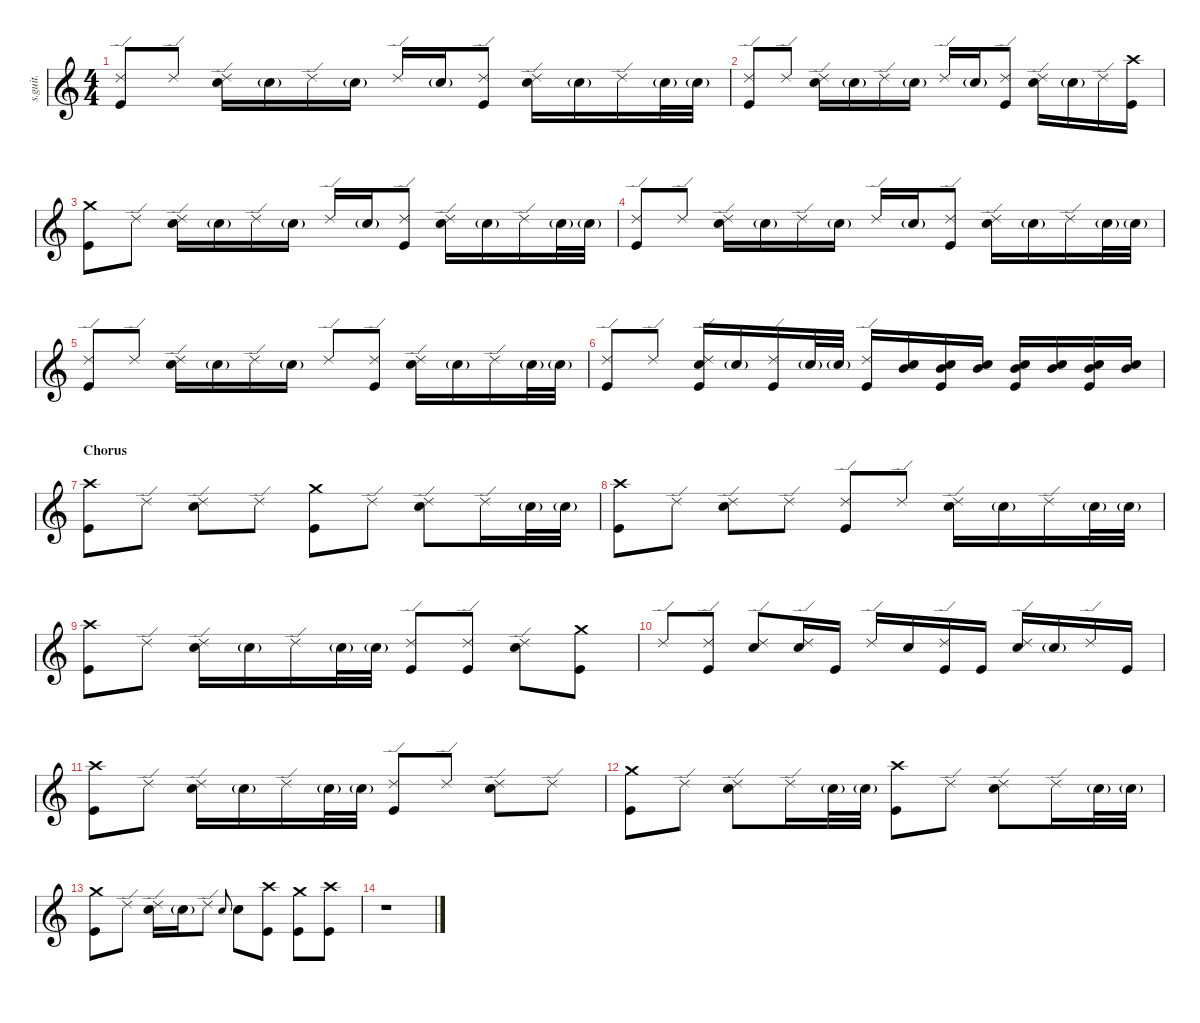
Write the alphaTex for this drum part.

\defaultSystemsLayout 4
\hideDynamics
\bracketExtendMode nobrackets
\track ("C. Smith" "s.guit.") {instrument percussion}
\staff {score}
\articulation defaults
\ts (4 4)
\tempo (96 hide)
\clef g2
\ks c
("Ride (edge) 2" "Kick (hit)").8{lyrics (0 "") lyrics (1 "") lyrics (2 "") lyrics (3 "") lyrics (4 "") dy f} "Ride (edge) 2".8{lyrics (0 "") lyrics (1 "") lyrics (2 "") lyrics (3 "") lyrics (4 "")} ("Ride (edge) 2" "Snare (hit) 2").16{lyrics (0 "") lyrics (1 "") lyrics (2 "") lyrics (3 "") lyrics (4 "")} "Snare (hit) 2"{g}.16{lyrics (0 "") lyrics (1 "") lyrics (2 "") lyrics (3 "") lyrics (4 "") dy ppp} "Ride (edge) 2".16{lyrics (0 "") lyrics (1 "") lyrics (2 "") lyrics (3 "") lyrics (4 "") dy f} "Snare (hit) 2"{g}.16{lyrics (0 "") lyrics (1 "") lyrics (2 "") lyrics (3 "") lyrics (4 "") dy ppp} "Ride (edge) 2".16{lyrics (0 "") lyrics (1 "") lyrics (2 "") lyrics (3 "") lyrics (4 "") dy f} "Snare (hit) 2"{g}.16{lyrics (0 "") lyrics (1 "") lyrics (2 "") lyrics (3 "") lyrics (4 "") dy ppp} ("Ride (edge) 2" "Kick (hit)").8{lyrics (0 "") lyrics (1 "") lyrics (2 "") lyrics (3 "") lyrics (4 "") dy f} ("Ride (edge) 2" "Snare (hit) 2").16{lyrics (0 "") lyrics (1 "") lyrics (2 "") lyrics (3 "") lyrics (4 "")} "Snare (hit) 2"{g}.16{lyrics (0 "") lyrics (1 "") lyrics (2 "") lyrics (3 "") lyrics (4 "") dy ppp} "Ride (edge) 2".16{lyrics (0 "") lyrics (1 "") lyrics (2 "") lyrics (3 "") lyrics (4 "") dy f} "Snare (hit) 2"{g}.32{lyrics (0 "") lyrics (1 "") lyrics (2 "") lyrics (3 "") lyrics (4 "") dy ppp} "Snare (hit) 2"{g}.32{lyrics (0 "") lyrics (1 "") lyrics (2 "") lyrics (3 "") lyrics (4 "")} |
("Ride (edge) 2" "Kick (hit)").8{lyrics (0 "") lyrics (1 "") lyrics (2 "") lyrics (3 "") lyrics (4 "") dy f} "Ride (edge) 2".8{lyrics (0 "") lyrics (1 "") lyrics (2 "") lyrics (3 "") lyrics (4 "")} ("Ride (edge) 2" "Snare (hit) 2").16{lyrics (0 "") lyrics (1 "") lyrics (2 "") lyrics (3 "") lyrics (4 "")} "Snare (hit) 2"{g}.16{lyrics (0 "") lyrics (1 "") lyrics (2 "") lyrics (3 "") lyrics (4 "") dy ppp} "Ride (edge) 2".16{lyrics (0 "") lyrics (1 "") lyrics (2 "") lyrics (3 "") lyrics (4 "") dy f} "Snare (hit) 2"{g}.16{lyrics (0 "") lyrics (1 "") lyrics (2 "") lyrics (3 "") lyrics (4 "") dy ppp} "Ride (edge) 2".16{lyrics (0 "") lyrics (1 "") lyrics (2 "") lyrics (3 "") lyrics (4 "") dy f} "Snare (hit) 2"{g}.16{lyrics (0 "") lyrics (1 "") lyrics (2 "") lyrics (3 "") lyrics (4 "") dy ppp} ("Ride (edge) 2" "Kick (hit)").8{lyrics (0 "") lyrics (1 "") lyrics (2 "") lyrics (3 "") lyrics (4 "") dy f} ("Ride (edge) 2" "Snare (hit) 2").16{lyrics (0 "") lyrics (1 "") lyrics (2 "") lyrics (3 "") lyrics (4 "")} "Snare (hit) 2"{g}.16{lyrics (0 "") lyrics (1 "") lyrics (2 "") lyrics (3 "") lyrics (4 "") dy ppp} "Ride (edge) 2".16{lyrics (0 "") lyrics (1 "") lyrics (2 "") lyrics (3 "") lyrics (4 "") dy f} ("Crash high (hit)" "Kick (hit)").16{lyrics (0 "") lyrics (1 "") lyrics (2 "") lyrics (3 "") lyrics (4 "")} |
("Crash medium (hit)" "Kick (hit)").8{lyrics (0 "") lyrics (1 "") lyrics (2 "") lyrics (3 "") lyrics (4 "")} "Ride (edge) 2".8{lyrics (0 "") lyrics (1 "") lyrics (2 "") lyrics (3 "") lyrics (4 "")} ("Ride (edge) 2" "Snare (hit) 2").16{lyrics (0 "") lyrics (1 "") lyrics (2 "") lyrics (3 "") lyrics (4 "")} "Snare (hit) 2"{g}.16{lyrics (0 "") lyrics (1 "") lyrics (2 "") lyrics (3 "") lyrics (4 "") dy ppp} "Ride (edge) 2".16{lyrics (0 "") lyrics (1 "") lyrics (2 "") lyrics (3 "") lyrics (4 "") dy f} "Snare (hit) 2"{g}.16{lyrics (0 "") lyrics (1 "") lyrics (2 "") lyrics (3 "") lyrics (4 "") dy ppp} "Ride (edge) 2".16{lyrics (0 "") lyrics (1 "") lyrics (2 "") lyrics (3 "") lyrics (4 "") dy f} "Snare (hit) 2"{g}.16{lyrics (0 "") lyrics (1 "") lyrics (2 "") lyrics (3 "") lyrics (4 "") dy ppp} ("Ride (edge) 2" "Kick (hit)").8{lyrics (0 "") lyrics (1 "") lyrics (2 "") lyrics (3 "") lyrics (4 "") dy f} ("Ride (edge) 2" "Snare (hit) 2").16{lyrics (0 "") lyrics (1 "") lyrics (2 "") lyrics (3 "") lyrics (4 "")} "Snare (hit) 2"{g}.16{lyrics (0 "") lyrics (1 "") lyrics (2 "") lyrics (3 "") lyrics (4 "") dy ppp} "Ride (edge) 2".16{lyrics (0 "") lyrics (1 "") lyrics (2 "") lyrics (3 "") lyrics (4 "") dy f} "Snare (hit) 2"{g}.32{lyrics (0 "") lyrics (1 "") lyrics (2 "") lyrics (3 "") lyrics (4 "") dy ppp} "Snare (hit) 2"{g}.32{lyrics (0 "") lyrics (1 "") lyrics (2 "") lyrics (3 "") lyrics (4 "")} |
("Ride (edge) 2" "Kick (hit)").8{lyrics (0 "") lyrics (1 "") lyrics (2 "") lyrics (3 "") lyrics (4 "") dy f} "Ride (edge) 2".8{lyrics (0 "") lyrics (1 "") lyrics (2 "") lyrics (3 "") lyrics (4 "")} ("Ride (edge) 2" "Snare (hit) 2").16{lyrics (0 "") lyrics (1 "") lyrics (2 "") lyrics (3 "") lyrics (4 "")} "Snare (hit) 2"{g}.16{lyrics (0 "") lyrics (1 "") lyrics (2 "") lyrics (3 "") lyrics (4 "") dy ppp} "Ride (edge) 2".16{lyrics (0 "") lyrics (1 "") lyrics (2 "") lyrics (3 "") lyrics (4 "") dy f} "Snare (hit) 2"{g}.16{lyrics (0 "") lyrics (1 "") lyrics (2 "") lyrics (3 "") lyrics (4 "") dy ppp} "Ride (edge) 2".16{lyrics (0 "") lyrics (1 "") lyrics (2 "") lyrics (3 "") lyrics (4 "") dy f} "Snare (hit) 2"{g}.16{lyrics (0 "") lyrics (1 "") lyrics (2 "") lyrics (3 "") lyrics (4 "") dy ppp} ("Ride (edge) 2" "Kick (hit)").8{lyrics (0 "") lyrics (1 "") lyrics (2 "") lyrics (3 "") lyrics (4 "") dy f} ("Ride (edge) 2" "Snare (hit) 2").16{lyrics (0 "") lyrics (1 "") lyrics (2 "") lyrics (3 "") lyrics (4 "")} "Snare (hit) 2"{g}.16{lyrics (0 "") lyrics (1 "") lyrics (2 "") lyrics (3 "") lyrics (4 "") dy ppp} "Ride (edge) 2".16{lyrics (0 "") lyrics (1 "") lyrics (2 "") lyrics (3 "") lyrics (4 "") dy f} "Snare (hit) 2"{g}.32{lyrics (0 "") lyrics (1 "") lyrics (2 "") lyrics (3 "") lyrics (4 "") dy ppp} "Snare (hit) 2"{g}.32{lyrics (0 "") lyrics (1 "") lyrics (2 "") lyrics (3 "") lyrics (4 "")} |
("Ride (edge) 2" "Kick (hit)").8{lyrics (0 "") lyrics (1 "") lyrics (2 "") lyrics (3 "") lyrics (4 "") dy f} "Ride (edge) 2".8{lyrics (0 "") lyrics (1 "") lyrics (2 "") lyrics (3 "") lyrics (4 "")} ("Ride (edge) 2" "Snare (hit) 2").16{lyrics (0 "") lyrics (1 "") lyrics (2 "") lyrics (3 "") lyrics (4 "")} "Snare (hit) 2"{g}.16{lyrics (0 "") lyrics (1 "") lyrics (2 "") lyrics (3 "") lyrics (4 "") dy ppp} "Ride (edge) 2".16{lyrics (0 "") lyrics (1 "") lyrics (2 "") lyrics (3 "") lyrics (4 "") dy f} "Snare (hit) 2"{g}.16{lyrics (0 "") lyrics (1 "") lyrics (2 "") lyrics (3 "") lyrics (4 "") dy ppp} "Ride (edge) 2".8{lyrics (0 "") lyrics (1 "") lyrics (2 "") lyrics (3 "") lyrics (4 "") dy f} ("Ride (edge) 2" "Kick (hit)").8{lyrics (0 "") lyrics (1 "") lyrics (2 "") lyrics (3 "") lyrics (4 "")} ("Ride (edge) 2" "Snare (hit) 2").16{lyrics (0 "") lyrics (1 "") lyrics (2 "") lyrics (3 "") lyrics (4 "")} "Snare (hit) 2"{g}.16{lyrics (0 "") lyrics (1 "") lyrics (2 "") lyrics (3 "") lyrics (4 "") dy ppp} "Ride (edge) 2".16{lyrics (0 "") lyrics (1 "") lyrics (2 "") lyrics (3 "") lyrics (4 "") dy f} "Snare (hit) 2"{g}.32{lyrics (0 "") lyrics (1 "") lyrics (2 "") lyrics (3 "") lyrics (4 "") dy ppp} "Snare (hit) 2"{g}.32{lyrics (0 "") lyrics (1 "") lyrics (2 "") lyrics (3 "") lyrics (4 "")} |
("Ride (edge) 2" "Kick (hit)").8{lyrics (0 "") lyrics (1 "") lyrics (2 "") lyrics (3 "") lyrics (4 "") dy f} "Ride (edge) 2".8{lyrics (0 "") lyrics (1 "") lyrics (2 "") lyrics (3 "") lyrics (4 "")} ("Ride (edge) 2" "Snare (hit) 2" "Kick (hit)").16{lyrics (0 "") lyrics (1 "") lyrics (2 "") lyrics (3 "") lyrics (4 "")} "Snare (hit) 2"{g}.16{lyrics (0 "") lyrics (1 "") lyrics (2 "") lyrics (3 "") lyrics (4 "") dy ppp} ("Ride (edge) 2" "Kick (hit)").16{lyrics (0 "") lyrics (1 "") lyrics (2 "") lyrics (3 "") lyrics (4 "") dy f} "Snare (hit) 2"{g}.32{lyrics (0 "") lyrics (1 "") lyrics (2 "") lyrics (3 "") lyrics (4 "") dy ppp} "Snare (hit) 2"{g}.32{lyrics (0 "") lyrics (1 "") lyrics (2 "") lyrics (3 "") lyrics (4 "")} ("Ride (edge) 2" "Kick (hit)").16{lyrics (0 "") lyrics (1 "") lyrics (2 "") lyrics (3 "") lyrics (4 "") dy f} ("Mid Tom (hit)" "Snare (hit) 2").16{lyrics (0 "") lyrics (1 "") lyrics (2 "") lyrics (3 "") lyrics (4 "") dy pp} ("Mid Tom (hit)" "Snare (hit) 2" "Kick (hit)").16{lyrics (0 "") lyrics (1 "") lyrics (2 "") lyrics (3 "") lyrics (4 "") dy p} ("Mid Tom (hit)" "Snare (hit) 2").16{lyrics (0 "") lyrics (1 "") lyrics (2 "") lyrics (3 "") lyrics (4 "") dy mp} ("Mid Tom (hit)" "Snare (hit) 2" "Kick (hit)").16{lyrics (0 "") lyrics (1 "") lyrics (2 "") lyrics (3 "") lyrics (4 "") dy mf} ("Mid Tom (hit)" "Snare (hit) 2").16{lyrics (0 "") lyrics (1 "") lyrics (2 "") lyrics (3 "") lyrics (4 "") dy f} ("Mid Tom (hit)" "Snare (hit) 2" "Kick (hit)").16{lyrics (0 "") lyrics (1 "") lyrics (2 "") lyrics (3 "") lyrics (4 "") dy ff} ("Mid Tom (hit)" "Snare (hit) 2").16{lyrics (0 "") lyrics (1 "") lyrics (2 "") lyrics (3 "") lyrics (4 "") dy fff} |
\section ("" "Chorus")
("Crash high (hit)" "Kick (hit)").8{lyrics (0 "") lyrics (1 "") lyrics (2 "") lyrics (3 "") lyrics (4 "") dy f} "Ride (edge) 2".8{lyrics (0 "") lyrics (1 "") lyrics (2 "") lyrics (3 "") lyrics (4 "")} ("Ride (edge) 2" "Snare (hit) 2").8{lyrics (0 "") lyrics (1 "") lyrics (2 "") lyrics (3 "") lyrics (4 "")} "Ride (edge) 2".8{lyrics (0 "") lyrics (1 "") lyrics (2 "") lyrics (3 "") lyrics (4 "")} ("Crash medium (hit)" "Kick (hit)").8{lyrics (0 "") lyrics (1 "") lyrics (2 "") lyrics (3 "") lyrics (4 "")} "Ride (edge) 2".8{lyrics (0 "") lyrics (1 "") lyrics (2 "") lyrics (3 "") lyrics (4 "")} ("Ride (edge) 2" "Snare (hit) 2").8{lyrics (0 "") lyrics (1 "") lyrics (2 "") lyrics (3 "") lyrics (4 "")} "Ride (edge) 2".16{lyrics (0 "") lyrics (1 "") lyrics (2 "") lyrics (3 "") lyrics (4 "")} "Snare (hit) 2"{g}.32{lyrics (0 "") lyrics (1 "") lyrics (2 "") lyrics (3 "") lyrics (4 "") dy ppp} "Snare (hit) 2"{g}.32{lyrics (0 "") lyrics (1 "") lyrics (2 "") lyrics (3 "") lyrics (4 "")} |
("Crash high (hit)" "Kick (hit)").8{lyrics (0 "") lyrics (1 "") lyrics (2 "") lyrics (3 "") lyrics (4 "") dy f} "Ride (edge) 2".8{lyrics (0 "") lyrics (1 "") lyrics (2 "") lyrics (3 "") lyrics (4 "")} ("Ride (edge) 2" "Snare (hit) 2").8{lyrics (0 "") lyrics (1 "") lyrics (2 "") lyrics (3 "") lyrics (4 "")} "Ride (edge) 2".8{lyrics (0 "") lyrics (1 "") lyrics (2 "") lyrics (3 "") lyrics (4 "")} ("Ride (edge) 2" "Kick (hit)").8{lyrics (0 "") lyrics (1 "") lyrics (2 "") lyrics (3 "") lyrics (4 "")} "Ride (edge) 2".8{lyrics (0 "") lyrics (1 "") lyrics (2 "") lyrics (3 "") lyrics (4 "")} ("Ride (edge) 2" "Snare (hit) 2").16{lyrics (0 "") lyrics (1 "") lyrics (2 "") lyrics (3 "") lyrics (4 "")} "Snare (hit) 2"{g}.16{lyrics (0 "") lyrics (1 "") lyrics (2 "") lyrics (3 "") lyrics (4 "") dy ppp} "Ride (edge) 2".16{lyrics (0 "") lyrics (1 "") lyrics (2 "") lyrics (3 "") lyrics (4 "") dy f} "Snare (hit) 2"{g}.32{lyrics (0 "") lyrics (1 "") lyrics (2 "") lyrics (3 "") lyrics (4 "") dy ppp} "Snare (hit) 2"{g}.32{lyrics (0 "") lyrics (1 "") lyrics (2 "") lyrics (3 "") lyrics (4 "")} |
("Crash high (hit)" "Kick (hit)").8{lyrics (0 "") lyrics (1 "") lyrics (2 "") lyrics (3 "") lyrics (4 "") dy f} "Ride (edge) 2".8{lyrics (0 "") lyrics (1 "") lyrics (2 "") lyrics (3 "") lyrics (4 "")} ("Ride (edge) 2" "Snare (hit) 2").16{lyrics (0 "") lyrics (1 "") lyrics (2 "") lyrics (3 "") lyrics (4 "")} "Snare (hit) 2"{g}.16{lyrics (0 "") lyrics (1 "") lyrics (2 "") lyrics (3 "") lyrics (4 "") dy ppp} "Ride (edge) 2".16{lyrics (0 "") lyrics (1 "") lyrics (2 "") lyrics (3 "") lyrics (4 "") dy f} "Snare (hit) 2"{g}.32{lyrics (0 "") lyrics (1 "") lyrics (2 "") lyrics (3 "") lyrics (4 "") dy ppp} "Snare (hit) 2"{g}.32{lyrics (0 "") lyrics (1 "") lyrics (2 "") lyrics (3 "") lyrics (4 "")} ("Ride (edge) 2" "Kick (hit)").8{lyrics (0 "") lyrics (1 "") lyrics (2 "") lyrics (3 "") lyrics (4 "") dy f} ("Ride (edge) 2" "Kick (hit)").8{lyrics (0 "") lyrics (1 "") lyrics (2 "") lyrics (3 "") lyrics (4 "")} ("Ride (edge) 2" "Snare (hit) 2").8{lyrics (0 "") lyrics (1 "") lyrics (2 "") lyrics (3 "") lyrics (4 "")} ("Crash medium (hit)" "Kick (hit)").8{lyrics (0 "") lyrics (1 "") lyrics (2 "") lyrics (3 "") lyrics (4 "")} |
"Ride (edge) 2".8{lyrics (0 "") lyrics (1 "") lyrics (2 "") lyrics (3 "") lyrics (4 "")} ("Ride (edge) 2" "Kick (hit)").8{lyrics (0 "") lyrics (1 "") lyrics (2 "") lyrics (3 "") lyrics (4 "")} ("Ride (edge) 2" "Snare (hit) 2").8{lyrics (0 "") lyrics (1 "") lyrics (2 "") lyrics (3 "") lyrics (4 "")} ("Ride (edge) 2" "Snare (hit) 2").16{lyrics (0 "") lyrics (1 "") lyrics (2 "") lyrics (3 "") lyrics (4 "")} "Kick (hit)".16{lyrics (0 "") lyrics (1 "") lyrics (2 "") lyrics (3 "") lyrics (4 "")} "Ride (edge) 2".16{lyrics (0 "") lyrics (1 "") lyrics (2 "") lyrics (3 "") lyrics (4 "")} "Snare (hit) 2".16{lyrics (0 "") lyrics (1 "") lyrics (2 "") lyrics (3 "") lyrics (4 "")} ("Ride (edge) 2" "Kick (hit)").16{lyrics (0 "") lyrics (1 "") lyrics (2 "") lyrics (3 "") lyrics (4 "")} "Kick (hit)".16{lyrics (0 "") lyrics (1 "") lyrics (2 "") lyrics (3 "") lyrics (4 "")} ("Ride (edge) 2" "Snare (hit) 2").16{lyrics (0 "") lyrics (1 "") lyrics (2 "") lyrics (3 "") lyrics (4 "")} "Snare (hit) 2"{g}.16{lyrics (0 "") lyrics (1 "") lyrics (2 "") lyrics (3 "") lyrics (4 "") dy ppp} "Ride (edge) 2".16{lyrics (0 "") lyrics (1 "") lyrics (2 "") lyrics (3 "") lyrics (4 "") dy f} "Kick (hit)".16{lyrics (0 "") lyrics (1 "") lyrics (2 "") lyrics (3 "") lyrics (4 "")} |
("Crash high (hit)" "Kick (hit)").8{lyrics (0 "") lyrics (1 "") lyrics (2 "") lyrics (3 "") lyrics (4 "")} "Ride (edge) 2".8{lyrics (0 "") lyrics (1 "") lyrics (2 "") lyrics (3 "") lyrics (4 "")} ("Ride (edge) 2" "Snare (hit) 2").16{lyrics (0 "") lyrics (1 "") lyrics (2 "") lyrics (3 "") lyrics (4 "")} "Snare (hit) 2"{g}.16{lyrics (0 "") lyrics (1 "") lyrics (2 "") lyrics (3 "") lyrics (4 "") dy ppp} "Ride (edge) 2".16{lyrics (0 "") lyrics (1 "") lyrics (2 "") lyrics (3 "") lyrics (4 "") dy f} "Snare (hit) 2"{g}.32{lyrics (0 "") lyrics (1 "") lyrics (2 "") lyrics (3 "") lyrics (4 "") dy ppp} "Snare (hit) 2"{g}.32{lyrics (0 "") lyrics (1 "") lyrics (2 "") lyrics (3 "") lyrics (4 "")} ("Ride (edge) 2" "Kick (hit)").8{lyrics (0 "") lyrics (1 "") lyrics (2 "") lyrics (3 "") lyrics (4 "") dy f} "Ride (edge) 2".8{lyrics (0 "") lyrics (1 "") lyrics (2 "") lyrics (3 "") lyrics (4 "")} ("Ride (edge) 2" "Snare (hit) 2").8{lyrics (0 "") lyrics (1 "") lyrics (2 "") lyrics (3 "") lyrics (4 "")} "Ride (edge) 2".8{lyrics (0 "") lyrics (1 "") lyrics (2 "") lyrics (3 "") lyrics (4 "")} |
("Crash medium (hit)" "Kick (hit)").8{lyrics (0 "") lyrics (1 "") lyrics (2 "") lyrics (3 "") lyrics (4 "")} "Ride (edge) 2".8{lyrics (0 "") lyrics (1 "") lyrics (2 "") lyrics (3 "") lyrics (4 "")} ("Ride (edge) 2" "Snare (hit) 2").8{lyrics (0 "") lyrics (1 "") lyrics (2 "") lyrics (3 "") lyrics (4 "")} "Ride (edge) 2".16{lyrics (0 "") lyrics (1 "") lyrics (2 "") lyrics (3 "") lyrics (4 "")} "Snare (hit) 2"{g}.32{lyrics (0 "") lyrics (1 "") lyrics (2 "") lyrics (3 "") lyrics (4 "") dy ppp} "Snare (hit) 2"{g}.32{lyrics (0 "") lyrics (1 "") lyrics (2 "") lyrics (3 "") lyrics (4 "")} ("Crash high (hit)" "Kick (hit)").8{lyrics (0 "") lyrics (1 "") lyrics (2 "") lyrics (3 "") lyrics (4 "") dy f} "Ride (edge) 2".8{lyrics (0 "") lyrics (1 "") lyrics (2 "") lyrics (3 "") lyrics (4 "")} ("Ride (edge) 2" "Snare (hit) 2").8{lyrics (0 "") lyrics (1 "") lyrics (2 "") lyrics (3 "") lyrics (4 "")} "Ride (edge) 2".16{lyrics (0 "") lyrics (1 "") lyrics (2 "") lyrics (3 "") lyrics (4 "")} "Snare (hit) 2"{g}.32{lyrics (0 "") lyrics (1 "") lyrics (2 "") lyrics (3 "") lyrics (4 "") dy ppp} "Snare (hit) 2"{g}.32{lyrics (0 "") lyrics (1 "") lyrics (2 "") lyrics (3 "") lyrics (4 "")} |
("Crash medium (hit)" "Kick (hit)").8{lyrics (0 "") lyrics (1 "") lyrics (2 "") lyrics (3 "") lyrics (4 "") dy f} "Ride (edge) 2".8{lyrics (0 "") lyrics (1 "") lyrics (2 "") lyrics (3 "") lyrics (4 "")} ("Ride (edge) 2" "Snare (hit) 2").16{lyrics (0 "") lyrics (1 "") lyrics (2 "") lyrics (3 "") lyrics (4 "")} "Snare (hit) 2"{g}.16{lyrics (0 "") lyrics (1 "") lyrics (2 "") lyrics (3 "") lyrics (4 "") dy ppp} "Ride (edge) 2".8{lyrics (0 "") lyrics (1 "") lyrics (2 "") lyrics (3 "") lyrics (4 "") dy f} "Snare (hit) 2".8{lyrics (0 "") lyrics (1 "") lyrics (2 "") lyrics (3 "") lyrics (4 "") gr onbeat} "Snare (hit) 2".8{lyrics (0 "") lyrics (1 "") lyrics (2 "") lyrics (3 "") lyrics (4 "")} ("Crash high (hit)" "Kick (hit)").8{lyrics (0 "") lyrics (1 "") lyrics (2 "") lyrics (3 "") lyrics (4 "")} ("Crash medium (hit)" "Kick (hit)").8{lyrics (0 "") lyrics (1 "") lyrics (2 "") lyrics (3 "") lyrics (4 "")} ("Crash high (hit)" "Kick (hit)").8{lyrics (0 "") lyrics (1 "") lyrics (2 "") lyrics (3 "") lyrics (4 "")} |
r.1
